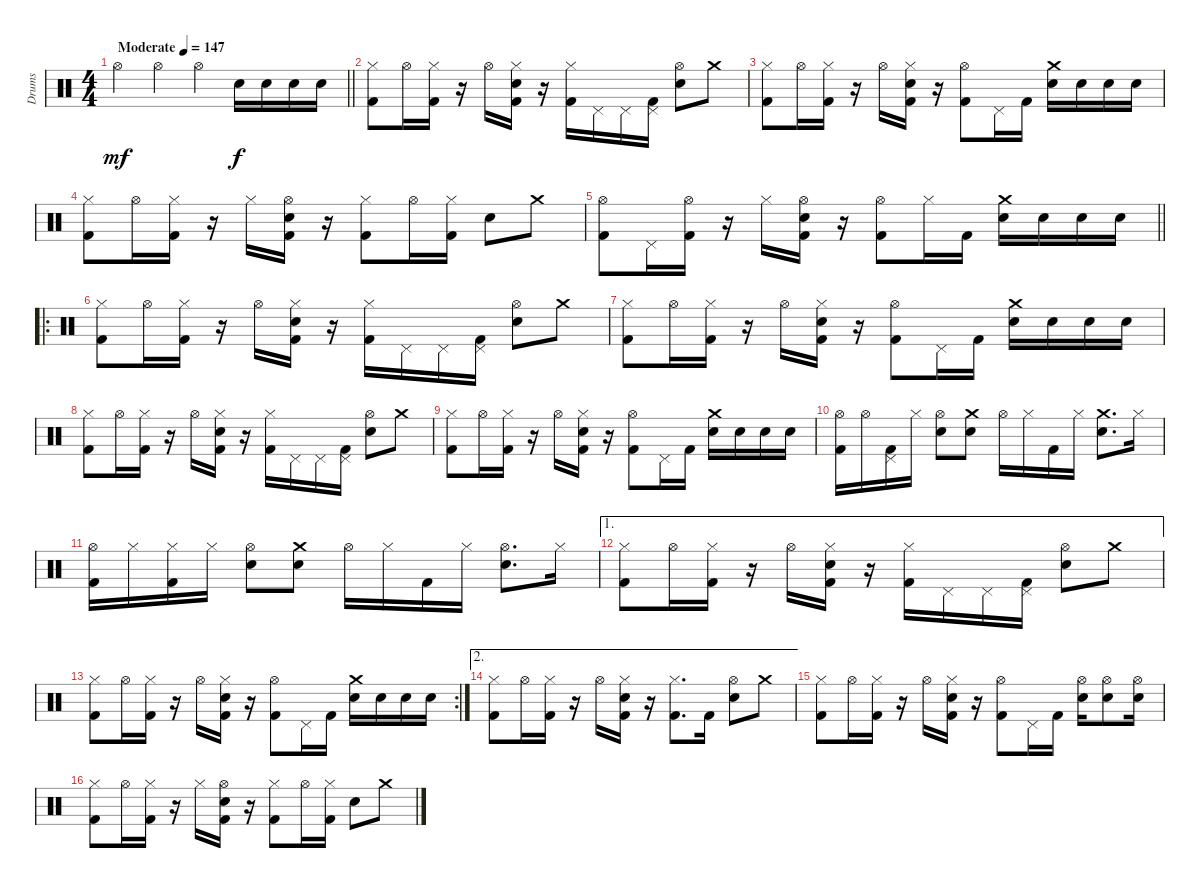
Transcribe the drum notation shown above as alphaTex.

\track ("Drums" "Drums") {instrument percussion}
\staff {score}
\articulation defaults
\ts (4 4)
\tempo (147 "Moderate")
\clef neutral
\barLineRight lightlight
\ks c "Hi-Hat (open)".4{dy mf} "Hi-Hat (open)".4 "Hi-Hat (open)".4 "Electric Snare (hit)".16{dy f} "Electric Snare (hit)".16 "Electric Snare (hit)".16 "Electric Snare (hit)".16
|
("Hi-Hat (closed)" "Kick (hit) 2").8 "Hi-Hat (open)".16 ("Hi-Hat (closed)" "Kick (hit) 2").16 r.16 "Hi-Hat (open)".16 ("Hi-Hat (closed)" "Electric Snare (hit)" "Kick (hit) 2").16 r.16 ("Hi-Hat (closed)" "Kick (hit) 2").16 "Pedal Hi-Hat (hit)".16 "Pedal Hi-Hat (hit)".16 ("Pedal Hi-Hat (hit)" "Kick (hit) 2").16 ("Hi-Hat (open)" "Electric Snare (hit)").8 "Crash medium (hit)".8 |
("Hi-Hat (closed)" "Kick (hit) 2").8 "Hi-Hat (open)".16 ("Hi-Hat (closed)" "Kick (hit) 2").16 r.16 "Hi-Hat (open)".16 ("Hi-Hat (closed)" "Electric Snare (hit)" "Kick (hit) 2").16 r.16 ("Hi-Hat (open)" "Kick (hit) 2").8 "Pedal Hi-Hat (hit)".16 "Kick (hit) 2".16 ("Crash medium (hit)" "Electric Snare (hit)").16 "Electric Snare (hit)".16 "Electric Snare (hit)".16 "Electric Snare (hit)".16 |
("Hi-Hat (closed)" "Kick (hit) 2").8 "Hi-Hat (open)".16 ("Hi-Hat (closed)" "Kick (hit) 2").16 r.16 "Hi-Hat (closed)".16 ("Hi-Hat (open)" "Electric Snare (hit)" "Kick (hit) 2").16 r.16 ("Hi-Hat (closed)" "Kick (hit) 2").8 "Hi-Hat (open)".16 ("Hi-Hat (closed)" "Kick (hit) 2").16 "Electric Snare (hit)".8 "Crash medium (hit)".8 |
\barLineRight lightlight
("Hi-Hat (open)" "Kick (hit) 2").8 "Pedal Hi-Hat (hit)".16 ("Hi-Hat (open)" "Kick (hit) 2").16 r.16 "Hi-Hat (closed)".16 ("Hi-Hat (open)" "Electric Snare (hit)" "Kick (hit) 2").16 r.16 ("Hi-Hat (open)" "Kick (hit) 2").8 "Hi-Hat (closed)".16 "Kick (hit) 2".16 ("Crash medium (hit)" "Electric Snare (hit)").16 "Electric Snare (hit)".16 "Electric Snare (hit)".16 "Electric Snare (hit)".16 |
\ro
("Hi-Hat (closed)" "Kick (hit) 2").8 "Hi-Hat (open)".16 ("Hi-Hat (closed)" "Kick (hit) 2").16 r.16 "Hi-Hat (open)".16 ("Hi-Hat (closed)" "Electric Snare (hit)" "Kick (hit) 2").16 r.16 ("Hi-Hat (closed)" "Kick (hit) 2").16 "Pedal Hi-Hat (hit)".16 "Pedal Hi-Hat (hit)".16 ("Pedal Hi-Hat (hit)" "Kick (hit) 2").16 ("Hi-Hat (open)" "Electric Snare (hit)").8 "Crash medium (hit)".8 |
("Hi-Hat (closed)" "Kick (hit) 2").8 "Hi-Hat (open)".16 ("Hi-Hat (closed)" "Kick (hit) 2").16 r.16 "Hi-Hat (open)".16 ("Hi-Hat (closed)" "Electric Snare (hit)" "Kick (hit) 2").16 r.16 ("Hi-Hat (open)" "Kick (hit) 2").8 "Pedal Hi-Hat (hit)".16 "Kick (hit) 2".16 ("Crash medium (hit)" "Electric Snare (hit)").16 "Electric Snare (hit)".16 "Electric Snare (hit)".16 "Electric Snare (hit)".16 |
("Hi-Hat (closed)" "Kick (hit) 2").8 "Hi-Hat (open)".16 ("Hi-Hat (closed)" "Kick (hit) 2").16 r.16 "Hi-Hat (open)".16 ("Hi-Hat (closed)" "Electric Snare (hit)" "Kick (hit) 2").16 r.16 ("Hi-Hat (closed)" "Kick (hit) 2").16 "Pedal Hi-Hat (hit)".16 "Pedal Hi-Hat (hit)".16 ("Pedal Hi-Hat (hit)" "Kick (hit) 2").16 ("Hi-Hat (open)" "Electric Snare (hit)").8 "Crash medium (hit)".8 |
("Hi-Hat (closed)" "Kick (hit) 2").8 "Hi-Hat (open)".16 ("Hi-Hat (closed)" "Kick (hit) 2").16 r.16 "Hi-Hat (open)".16 ("Hi-Hat (closed)" "Electric Snare (hit)" "Kick (hit) 2").16 r.16 ("Hi-Hat (open)" "Kick (hit) 2").8 "Pedal Hi-Hat (hit)".16 "Kick (hit) 2".16 ("Crash medium (hit)" "Electric Snare (hit)").16 "Electric Snare (hit)".16 "Electric Snare (hit)".16 "Electric Snare (hit)".16 |
("Hi-Hat (open)" "Kick (hit) 2").16 "Hi-Hat (open)".16 ("Pedal Hi-Hat (hit)" "Kick (hit) 2").16 "Hi-Hat (closed)".16 ("Hi-Hat (open)" "Electric Snare (hit)").8 ("Crash medium (hit)" "Electric Snare (hit)").8 "Hi-Hat (open)".16 "Hi-Hat (closed)".16 "Kick (hit) 2".16 "Hi-Hat (closed)".16 ("Crash medium (hit)" "Electric Snare (hit)").8{d} "Hi-Hat (closed)".16 |
("Hi-Hat (open)" "Kick (hit) 2").16 "Hi-Hat (closed)".16 ("Hi-Hat (closed)" "Kick (hit) 2").16 "Hi-Hat (closed)".16 ("Hi-Hat (open)" "Electric Snare (hit)").8 ("Crash medium (hit)" "Electric Snare (hit)").8 "Hi-Hat (open)".16 "Hi-Hat (closed)".16 "Kick (hit) 2".16 "Hi-Hat (closed)".16 ("Hi-Hat (open)" "Electric Snare (hit)").8{d} "Hi-Hat (closed)".16 |
\ae 1
("Hi-Hat (closed)" "Kick (hit) 2").8 "Hi-Hat (open)".16 ("Hi-Hat (closed)" "Kick (hit) 2").16 r.16 "Hi-Hat (open)".16 ("Hi-Hat (closed)" "Electric Snare (hit)" "Kick (hit) 2").16 r.16 ("Hi-Hat (closed)" "Kick (hit) 2").16 "Pedal Hi-Hat (hit)".16 "Pedal Hi-Hat (hit)".16 ("Pedal Hi-Hat (hit)" "Kick (hit) 2").16 ("Hi-Hat (open)" "Electric Snare (hit)").8 "Crash medium (hit)".8 |
\rc 2
("Hi-Hat (closed)" "Kick (hit) 2").8 "Hi-Hat (open)".16 ("Hi-Hat (closed)" "Kick (hit) 2").16 r.16 "Hi-Hat (open)".16 ("Hi-Hat (closed)" "Electric Snare (hit)" "Kick (hit) 2").16 r.16 ("Hi-Hat (open)" "Kick (hit) 2").8 "Pedal Hi-Hat (hit)".16 "Kick (hit) 2".16 ("Crash medium (hit)" "Electric Snare (hit)").16 "Electric Snare (hit)".16 "Electric Snare (hit)".16 "Electric Snare (hit)".16 |
\ae 2
("Hi-Hat (closed)" "Kick (hit) 2").8 "Hi-Hat (open)".16 ("Hi-Hat (closed)" "Kick (hit) 2").16 r.16 "Hi-Hat (open)".16 ("Hi-Hat (closed)" "Electric Snare (hit)" "Kick (hit) 2").16 r.16 ("Hi-Hat (closed)" "Kick (hit) 2").8{d} "Kick (hit) 2".16 ("Hi-Hat (open)" "Electric Snare (hit)").8 "Crash medium (hit)".8 |
("Hi-Hat (closed)" "Kick (hit) 2").8 "Hi-Hat (open)".16 ("Hi-Hat (closed)" "Kick (hit) 2").16 r.16 "Hi-Hat (open)".16 ("Hi-Hat (closed)" "Electric Snare (hit)" "Kick (hit) 2").16 r.16 ("Hi-Hat (open)" "Kick (hit) 2").8 "Pedal Hi-Hat (hit)".16 "Kick (hit) 2".16 ("Hi-Hat (open)" "Electric Snare (hit)").16 ("Hi-Hat (open)" "Electric Snare (hit)").8 ("Hi-Hat (open)" "Electric Snare (hit)").16 |
("Hi-Hat (closed)" "Kick (hit) 2").8 "Hi-Hat (open)".16 ("Hi-Hat (closed)" "Kick (hit) 2").16 r.16 "Hi-Hat (closed)".16 ("Hi-Hat (open)" "Electric Snare (hit)" "Kick (hit) 2").16 r.16 ("Hi-Hat (closed)" "Kick (hit) 2").8 "Hi-Hat (open)".16 ("Hi-Hat (closed)" "Kick (hit) 2").16 "Electric Snare (hit)".8 "Crash medium (hit)".8
